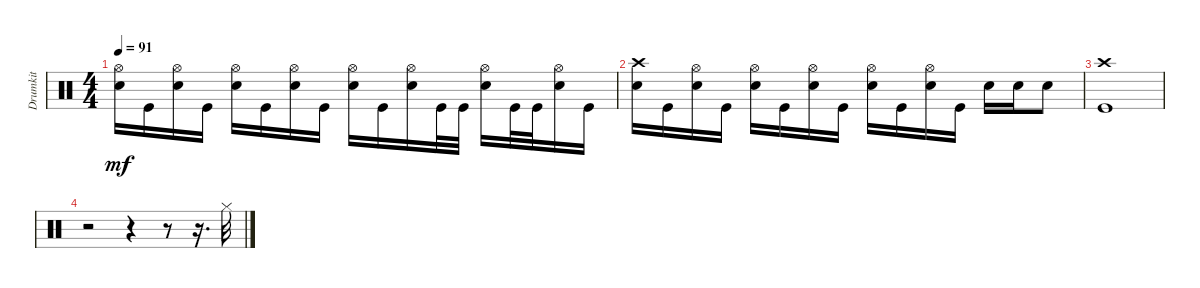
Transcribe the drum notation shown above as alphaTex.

\track ("Drumkit" "Drumkit") {instrument percussion}
\staff {score}
\articulation defaults
\ts (4 4)
\tempo 91
\clef neutral
\ks c
("Hi-Hat (open)" "Snare (hit) 2").16{dy mf} "Kick (hit)".16 ("Hi-Hat (open)" "Snare (hit) 2").16 "Kick (hit)".16 ("Hi-Hat (open)" "Snare (hit) 2").16 "Kick (hit)".16 ("Hi-Hat (open)" "Snare (hit) 2").16 "Kick (hit)".16 ("Hi-Hat (open)" "Snare (hit) 2").16 "Kick (hit)".16 ("Hi-Hat (open)" "Snare (hit) 2").16 "Kick (hit)".32 "Kick (hit)".32 ("Hi-Hat (open)" "Snare (hit) 2").16 "Kick (hit)".32 "Kick (hit)".32 ("Hi-Hat (open)" "Snare (hit) 2").16 "Kick (hit)".16 |
("Crash high (hit)" "Snare (hit) 2").16 "Kick (hit)".16 ("Hi-Hat (open)" "Snare (hit) 2").16 "Kick (hit)".16 ("Hi-Hat (open)" "Snare (hit) 2").16 "Kick (hit)".16 ("Hi-Hat (open)" "Snare (hit) 2").16 "Kick (hit)".16 ("Hi-Hat (open)" "Snare (hit) 2").16 "Kick (hit)".16 ("Hi-Hat (open)" "Snare (hit) 2").16 "Kick (hit)".16 "Snare (hit) 2".16 "Snare (hit) 2".16 "Snare (hit) 2".8 |
("Crash high (hit)" "Kick (hit)").1 |
r.2 r.4 r.8 r.16{d} "Hi-Hat (closed)".32
